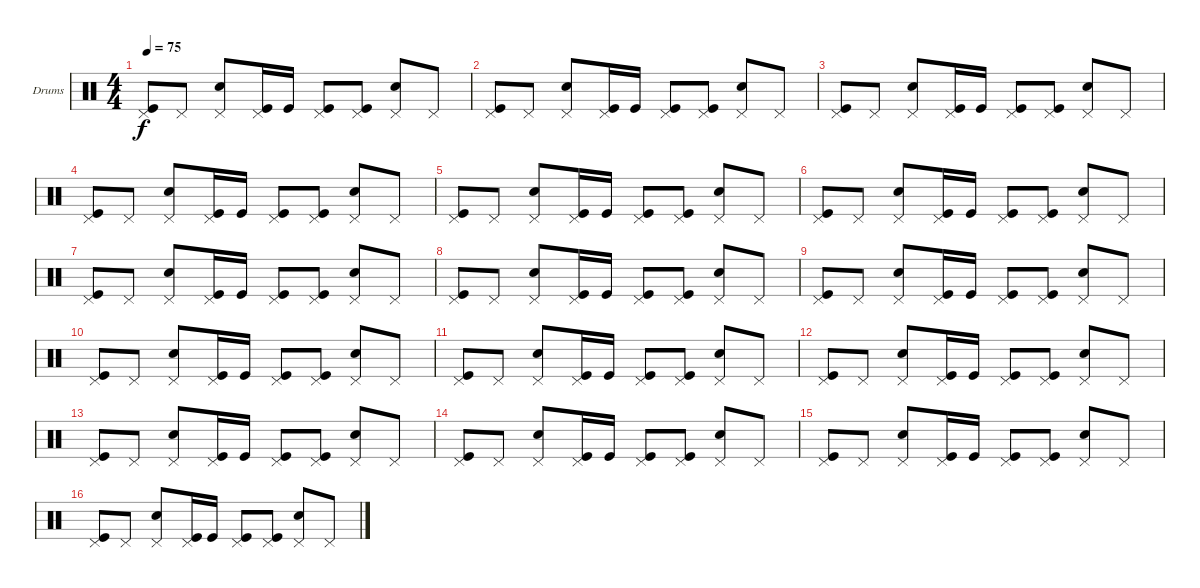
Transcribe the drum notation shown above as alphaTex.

\bracketExtendMode groupsimilarinstruments
\firstSystemTrackNameOrientation horizontal
\otherSystemsTrackNameOrientation horizontal
\track ("Drumkit" "Drums") {instrument percussion}
\staff {score}
\articulation defaults
\ts (4 4)
\tempo 75
\clef neutral
\ks c
("Pedal Hi-Hat (hit)" "Kick (hit)").8{dy f} "Pedal Hi-Hat (hit)".8 ("Pedal Hi-Hat (hit)" "Snare (hit) 2").8 ("Pedal Hi-Hat (hit)" "Kick (hit)").16 "Kick (hit)".16 ("Pedal Hi-Hat (hit)" "Kick (hit)").8 ("Pedal Hi-Hat (hit)" "Kick (hit)").8 ("Pedal Hi-Hat (hit)" "Snare (hit) 2").8 "Pedal Hi-Hat (hit)".8 |
("Pedal Hi-Hat (hit)" "Kick (hit)").8 "Pedal Hi-Hat (hit)".8 ("Pedal Hi-Hat (hit)" "Snare (hit) 2").8 ("Pedal Hi-Hat (hit)" "Kick (hit)").16 "Kick (hit)".16 ("Pedal Hi-Hat (hit)" "Kick (hit)").8 ("Pedal Hi-Hat (hit)" "Kick (hit)").8 ("Pedal Hi-Hat (hit)" "Snare (hit) 2").8 "Pedal Hi-Hat (hit)".8 |
("Pedal Hi-Hat (hit)" "Kick (hit)").8 "Pedal Hi-Hat (hit)".8 ("Pedal Hi-Hat (hit)" "Snare (hit) 2").8 ("Pedal Hi-Hat (hit)" "Kick (hit)").16 "Kick (hit)".16 ("Pedal Hi-Hat (hit)" "Kick (hit)").8 ("Pedal Hi-Hat (hit)" "Kick (hit)").8 ("Pedal Hi-Hat (hit)" "Snare (hit) 2").8 "Pedal Hi-Hat (hit)".8 |
("Pedal Hi-Hat (hit)" "Kick (hit)").8 "Pedal Hi-Hat (hit)".8 ("Pedal Hi-Hat (hit)" "Snare (hit) 2").8 ("Pedal Hi-Hat (hit)" "Kick (hit)").16 "Kick (hit)".16 ("Pedal Hi-Hat (hit)" "Kick (hit)").8 ("Pedal Hi-Hat (hit)" "Kick (hit)").8 ("Pedal Hi-Hat (hit)" "Snare (hit) 2").8 "Pedal Hi-Hat (hit)".8 |
("Pedal Hi-Hat (hit)" "Kick (hit)").8 "Pedal Hi-Hat (hit)".8 ("Pedal Hi-Hat (hit)" "Snare (hit) 2").8 ("Pedal Hi-Hat (hit)" "Kick (hit)").16 "Kick (hit)".16 ("Pedal Hi-Hat (hit)" "Kick (hit)").8 ("Pedal Hi-Hat (hit)" "Kick (hit)").8 ("Pedal Hi-Hat (hit)" "Snare (hit) 2").8 "Pedal Hi-Hat (hit)".8 |
("Pedal Hi-Hat (hit)" "Kick (hit)").8 "Pedal Hi-Hat (hit)".8 ("Pedal Hi-Hat (hit)" "Snare (hit) 2").8 ("Pedal Hi-Hat (hit)" "Kick (hit)").16 "Kick (hit)".16 ("Pedal Hi-Hat (hit)" "Kick (hit)").8 ("Pedal Hi-Hat (hit)" "Kick (hit)").8 ("Pedal Hi-Hat (hit)" "Snare (hit) 2").8 "Pedal Hi-Hat (hit)".8 |
("Pedal Hi-Hat (hit)" "Kick (hit)").8 "Pedal Hi-Hat (hit)".8 ("Pedal Hi-Hat (hit)" "Snare (hit) 2").8 ("Pedal Hi-Hat (hit)" "Kick (hit)").16 "Kick (hit)".16 ("Pedal Hi-Hat (hit)" "Kick (hit)").8 ("Pedal Hi-Hat (hit)" "Kick (hit)").8 ("Pedal Hi-Hat (hit)" "Snare (hit) 2").8 "Pedal Hi-Hat (hit)".8 |
("Pedal Hi-Hat (hit)" "Kick (hit)").8 "Pedal Hi-Hat (hit)".8 ("Pedal Hi-Hat (hit)" "Snare (hit) 2").8 ("Pedal Hi-Hat (hit)" "Kick (hit)").16 "Kick (hit)".16 ("Pedal Hi-Hat (hit)" "Kick (hit)").8 ("Pedal Hi-Hat (hit)" "Kick (hit)").8 ("Pedal Hi-Hat (hit)" "Snare (hit) 2").8 "Pedal Hi-Hat (hit)".8 |
("Pedal Hi-Hat (hit)" "Kick (hit)").8 "Pedal Hi-Hat (hit)".8 ("Pedal Hi-Hat (hit)" "Snare (hit) 2").8 ("Pedal Hi-Hat (hit)" "Kick (hit)").16 "Kick (hit)".16 ("Pedal Hi-Hat (hit)" "Kick (hit)").8 ("Pedal Hi-Hat (hit)" "Kick (hit)").8 ("Pedal Hi-Hat (hit)" "Snare (hit) 2").8 "Pedal Hi-Hat (hit)".8 |
("Pedal Hi-Hat (hit)" "Kick (hit)").8 "Pedal Hi-Hat (hit)".8 ("Pedal Hi-Hat (hit)" "Snare (hit) 2").8 ("Pedal Hi-Hat (hit)" "Kick (hit)").16 "Kick (hit)".16 ("Pedal Hi-Hat (hit)" "Kick (hit)").8 ("Pedal Hi-Hat (hit)" "Kick (hit)").8 ("Pedal Hi-Hat (hit)" "Snare (hit) 2").8 "Pedal Hi-Hat (hit)".8 |
("Pedal Hi-Hat (hit)" "Kick (hit)").8 "Pedal Hi-Hat (hit)".8 ("Pedal Hi-Hat (hit)" "Snare (hit) 2").8 ("Pedal Hi-Hat (hit)" "Kick (hit)").16 "Kick (hit)".16 ("Pedal Hi-Hat (hit)" "Kick (hit)").8 ("Pedal Hi-Hat (hit)" "Kick (hit)").8 ("Pedal Hi-Hat (hit)" "Snare (hit) 2").8 "Pedal Hi-Hat (hit)".8 |
("Pedal Hi-Hat (hit)" "Kick (hit)").8 "Pedal Hi-Hat (hit)".8 ("Pedal Hi-Hat (hit)" "Snare (hit) 2").8 ("Pedal Hi-Hat (hit)" "Kick (hit)").16 "Kick (hit)".16 ("Pedal Hi-Hat (hit)" "Kick (hit)").8 ("Pedal Hi-Hat (hit)" "Kick (hit)").8 ("Pedal Hi-Hat (hit)" "Snare (hit) 2").8 "Pedal Hi-Hat (hit)".8 |
("Pedal Hi-Hat (hit)" "Kick (hit)").8 "Pedal Hi-Hat (hit)".8 ("Pedal Hi-Hat (hit)" "Snare (hit) 2").8 ("Pedal Hi-Hat (hit)" "Kick (hit)").16 "Kick (hit)".16 ("Pedal Hi-Hat (hit)" "Kick (hit)").8 ("Pedal Hi-Hat (hit)" "Kick (hit)").8 ("Pedal Hi-Hat (hit)" "Snare (hit) 2").8 "Pedal Hi-Hat (hit)".8 |
("Pedal Hi-Hat (hit)" "Kick (hit)").8 "Pedal Hi-Hat (hit)".8 ("Pedal Hi-Hat (hit)" "Snare (hit) 2").8 ("Pedal Hi-Hat (hit)" "Kick (hit)").16 "Kick (hit)".16 ("Pedal Hi-Hat (hit)" "Kick (hit)").8 ("Pedal Hi-Hat (hit)" "Kick (hit)").8 ("Pedal Hi-Hat (hit)" "Snare (hit) 2").8 "Pedal Hi-Hat (hit)".8 |
("Pedal Hi-Hat (hit)" "Kick (hit)").8 "Pedal Hi-Hat (hit)".8 ("Pedal Hi-Hat (hit)" "Snare (hit) 2").8 ("Pedal Hi-Hat (hit)" "Kick (hit)").16 "Kick (hit)".16 ("Pedal Hi-Hat (hit)" "Kick (hit)").8 ("Pedal Hi-Hat (hit)" "Kick (hit)").8 ("Pedal Hi-Hat (hit)" "Snare (hit) 2").8 "Pedal Hi-Hat (hit)".8 |
("Pedal Hi-Hat (hit)" "Kick (hit)").8 "Pedal Hi-Hat (hit)".8 ("Pedal Hi-Hat (hit)" "Snare (hit) 2").8 ("Pedal Hi-Hat (hit)" "Kick (hit)").16 "Kick (hit)".16 ("Pedal Hi-Hat (hit)" "Kick (hit)").8 ("Pedal Hi-Hat (hit)" "Kick (hit)").8 ("Pedal Hi-Hat (hit)" "Snare (hit) 2").8 "Pedal Hi-Hat (hit)".8
